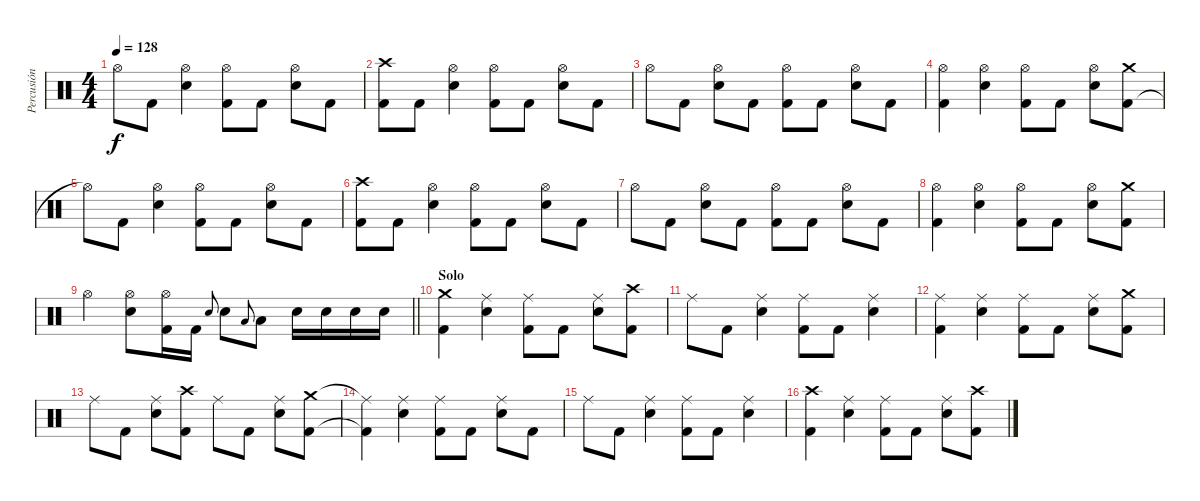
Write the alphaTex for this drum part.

\track ("Percusión" "Percusión") {instrument percussion}
\staff {score}
\articulation defaults
\ts (4 4)
\tempo 128
\clef neutral
\ks c "Hi-Hat (open)".8{dy f} "Kick (hit) 2".8
("Electric Snare (hit)" "Hi-Hat (open)").4 ("Kick (hit) 2" "Hi-Hat (open)").8 "Kick (hit) 2".8 ("Electric Snare (hit)" "Hi-Hat (open)").8 "Kick (hit) 2".8 |
("Kick (hit) 2" "Crash high (hit)").8 "Kick (hit) 2".8 ("Electric Snare (hit)" "Hi-Hat (open)").4 ("Kick (hit) 2" "Hi-Hat (open)").8 "Kick (hit) 2".8 ("Electric Snare (hit)" "Hi-Hat (open)").8 "Kick (hit) 2".8 |
"Hi-Hat (open)".8 "Kick (hit) 2".8 ("Electric Snare (hit)" "Hi-Hat (open)").8 "Kick (hit) 2".8 ("Kick (hit) 2" "Hi-Hat (open)").8 "Kick (hit) 2".8 ("Electric Snare (hit)" "Hi-Hat (open)").8 "Kick (hit) 2".8 |
("Kick (hit) 2" "Hi-Hat (open)").4 ("Electric Snare (hit)" "Hi-Hat (open)").4 ("Kick (hit) 2" "Hi-Hat (open)").8 "Kick (hit) 2".8 ("Electric Snare (hit)" "Hi-Hat (open)").8 ("Kick (hit) 2" "Crash medium (hit)").8 |
"Hi-Hat (open)"{t}.8 "Kick (hit) 2".8 ("Electric Snare (hit)" "Hi-Hat (open)").4 ("Kick (hit) 2" "Hi-Hat (open)").8 "Kick (hit) 2".8 ("Electric Snare (hit)" "Hi-Hat (open)").8 "Kick (hit) 2".8 |
("Kick (hit) 2" "Crash high (hit)").8 "Kick (hit) 2".8 ("Electric Snare (hit)" "Hi-Hat (open)").4 ("Kick (hit) 2" "Hi-Hat (open)").8 "Kick (hit) 2".8 ("Electric Snare (hit)" "Hi-Hat (open)").8 "Kick (hit) 2".8 |
"Hi-Hat (open)".8 "Kick (hit) 2".8 ("Electric Snare (hit)" "Hi-Hat (open)").8 "Kick (hit) 2".8 ("Kick (hit) 2" "Hi-Hat (open)").8 "Kick (hit) 2".8 ("Electric Snare (hit)" "Hi-Hat (open)").8 "Kick (hit) 2".8 |
("Kick (hit) 2" "Hi-Hat (open)").4 ("Electric Snare (hit)" "Hi-Hat (open)").4 ("Kick (hit) 2" "Hi-Hat (open)").8 "Kick (hit) 2".8 ("Electric Snare (hit)" "Hi-Hat (open)").8 ("Kick (hit) 2" "Crash medium (hit)").8 |
\barLineRight lightlight "Hi-Hat (open)".4
("Electric Snare (hit)" "Hi-Hat (open)").8 ("Kick (hit) 2" "Hi-Hat (open)").16 "Kick (hit) 2".16 "Electric Snare (hit)".8{gr onbeat} "Electric Snare (hit)".8 "Low Tom (hit)".8{gr onbeat} "Low Tom (hit)".8 "Electric Snare (hit)".16 "Electric Snare (hit)".16 "Electric Snare (hit)".16 "Electric Snare (hit)".16 |
\section ("" "Solo")
("Kick (hit) 2" "Crash medium (hit)").4 ("Electric Snare (hit)" "Ride (middle)").4 ("Kick (hit) 2" "Ride (middle)").8 "Kick (hit) 2".8 ("Electric Snare (hit)" "Ride (middle)").8 ("Kick (hit) 2" "Crash high (hit)").8 |
"Ride (middle)".8 "Kick (hit) 2".8 ("Electric Snare (hit)" "Ride (middle)").4 ("Kick (hit) 2" "Ride (middle)").8 "Kick (hit) 2".8 ("Electric Snare (hit)" "Ride (middle)").4 |
("Kick (hit) 2" "Ride (middle)").4 ("Electric Snare (hit)" "Ride (middle)").4 ("Kick (hit) 2" "Ride (middle)").8 "Kick (hit) 2".8 ("Electric Snare (hit)" "Ride (middle)").8 ("Kick (hit) 2" "Crash medium (hit)").8 |
"Ride (middle)".8 "Kick (hit) 2".8 ("Electric Snare (hit)" "Ride (middle)").8 ("Kick (hit) 2" "Crash high (hit)").8 "Ride (middle)".8 "Kick (hit) 2".8 ("Electric Snare (hit)" "Ride (middle)").8 ("Kick (hit) 2" "Crash medium (hit)").8 |
("Kick (hit) 2"{t} "Ride (middle)"{t}).4 ("Electric Snare (hit)" "Ride (middle)").4 ("Kick (hit) 2" "Ride (middle)").8 "Kick (hit) 2".8 ("Electric Snare (hit)" "Ride (middle)").8 "Kick (hit) 2".8 |
"Ride (middle)".8 "Kick (hit) 2".8 ("Electric Snare (hit)" "Ride (middle)").4 ("Kick (hit) 2" "Ride (middle)").8 "Kick (hit) 2".8 ("Electric Snare (hit)" "Ride (middle)").4 |
("Kick (hit) 2" "Crash high (hit)").4 ("Electric Snare (hit)" "Ride (middle)").4 ("Kick (hit) 2" "Ride (middle)").8 "Kick (hit) 2".8 ("Electric Snare (hit)" "Ride (middle)").8 ("Kick (hit) 2" "Crash high (hit)").8
